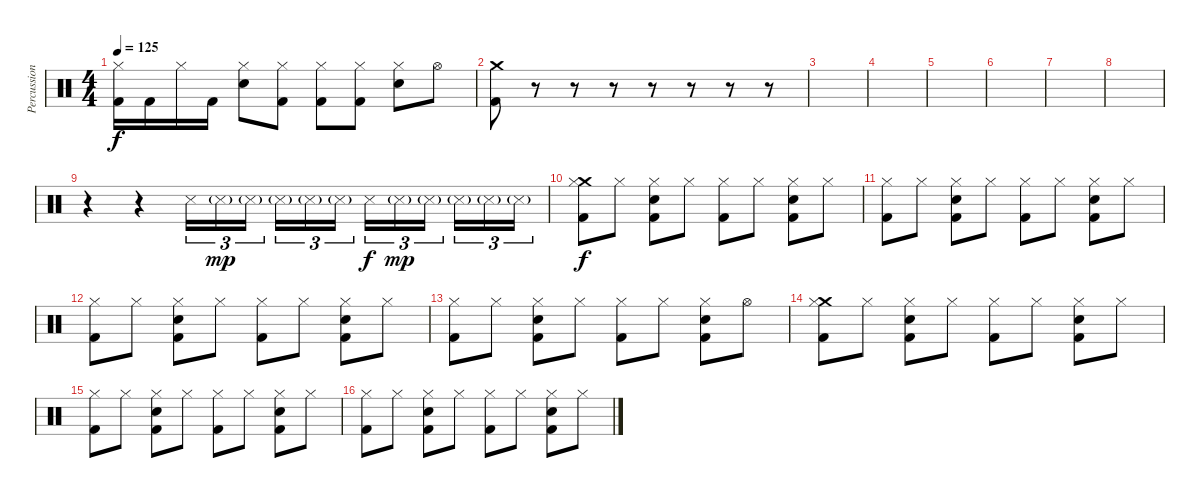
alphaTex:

\track ("Percussion" "Percussion") {instrument percussion}
\staff {score}
\articulation defaults
\ts (4 4)
\tempo 125
\clef neutral
\ks c
("Hi-Hat (closed)" "Kick (hit) 2").16{dy f} "Kick (hit) 2".16 "Hi-Hat (closed)".16 "Kick (hit) 2".16 ("Hi-Hat (closed)" "Electric Snare (hit)").8 ("Hi-Hat (closed)" "Kick (hit) 2").8 ("Hi-Hat (closed)" "Kick (hit) 2").8 ("Hi-Hat (closed)" "Kick (hit) 2").8 ("Hi-Hat (closed)" "Electric Snare (hit)").8 "Hi-Hat (open)".8 |
("Crash medium (hit)" "Kick (hit) 2").8 r.8 r.8 r.8 r.8 r.8 r.8 r.8 |
|
|
|
|
|
|
r.4 r.4 "Snare (side stick) 3".16{tu (3 2)} "Snare (side stick) 3"{g}.16{tu (3 2) dy mp} "Snare (side stick) 3"{g}.16{tu (3 2) beam splitsecondary} "Snare (side stick) 3"{g}.16{tu (3 2)} "Snare (side stick) 3"{g}.16{tu (3 2)} "Snare (side stick) 3"{g}.16{tu (3 2)} "Snare (side stick) 3".16{tu (3 2) dy f} "Snare (side stick) 3"{g}.16{tu (3 2) dy mp} "Snare (side stick) 3"{g}.16{tu (3 2) beam splitsecondary} "Snare (side stick) 3"{g}.16{tu (3 2)} "Snare (side stick) 3"{g}.16{tu (3 2)} "Snare (side stick) 3"{g}.16{tu (3 2)} |
("Crash medium (hit)" "Hi-Hat (closed)" "Kick (hit) 2").8{dy f} "Hi-Hat (closed)".8 ("Hi-Hat (closed)" "Electric Snare (hit)" "Kick (hit) 2").8 "Hi-Hat (closed)".8 ("Hi-Hat (closed)" "Kick (hit) 2").8 "Hi-Hat (closed)".8 ("Hi-Hat (closed)" "Electric Snare (hit)" "Kick (hit) 2").8 "Hi-Hat (closed)".8 |
("Hi-Hat (closed)" "Kick (hit) 2").8 "Hi-Hat (closed)".8 ("Hi-Hat (closed)" "Electric Snare (hit)" "Kick (hit) 2").8 "Hi-Hat (closed)".8 ("Hi-Hat (closed)" "Kick (hit) 2").8 "Hi-Hat (closed)".8 ("Hi-Hat (closed)" "Electric Snare (hit)" "Kick (hit) 2").8 "Hi-Hat (closed)".8 |
("Hi-Hat (closed)" "Kick (hit) 2").8 "Hi-Hat (closed)".8 ("Hi-Hat (closed)" "Electric Snare (hit)" "Kick (hit) 2").8 "Hi-Hat (closed)".8 ("Hi-Hat (closed)" "Kick (hit) 2").8 "Hi-Hat (closed)".8 ("Hi-Hat (closed)" "Electric Snare (hit)" "Kick (hit) 2").8 "Hi-Hat (closed)".8 |
("Hi-Hat (closed)" "Kick (hit) 2").8 "Hi-Hat (closed)".8 ("Hi-Hat (closed)" "Electric Snare (hit)" "Kick (hit) 2").8 "Hi-Hat (closed)".8 ("Hi-Hat (closed)" "Kick (hit) 2").8 "Hi-Hat (closed)".8 ("Hi-Hat (closed)" "Electric Snare (hit)" "Kick (hit) 2").8 "Hi-Hat (open)".8 |
("Crash medium (hit)" "Hi-Hat (closed)" "Kick (hit) 2").8 "Hi-Hat (closed)".8 ("Hi-Hat (closed)" "Electric Snare (hit)" "Kick (hit) 2").8 "Hi-Hat (closed)".8 ("Hi-Hat (closed)" "Kick (hit) 2").8 "Hi-Hat (closed)".8 ("Hi-Hat (closed)" "Electric Snare (hit)" "Kick (hit) 2").8 "Hi-Hat (closed)".8 |
("Hi-Hat (closed)" "Kick (hit) 2").8 "Hi-Hat (closed)".8 ("Hi-Hat (closed)" "Electric Snare (hit)" "Kick (hit) 2").8 "Hi-Hat (closed)".8 ("Hi-Hat (closed)" "Kick (hit) 2").8 "Hi-Hat (closed)".8 ("Hi-Hat (closed)" "Electric Snare (hit)" "Kick (hit) 2").8 "Hi-Hat (closed)".8 |
("Hi-Hat (closed)" "Kick (hit) 2").8 "Hi-Hat (closed)".8 ("Hi-Hat (closed)" "Electric Snare (hit)" "Kick (hit) 2").8 "Hi-Hat (closed)".8 ("Hi-Hat (closed)" "Kick (hit) 2").8 "Hi-Hat (closed)".8 ("Hi-Hat (closed)" "Electric Snare (hit)" "Kick (hit) 2").8 "Hi-Hat (closed)".8
